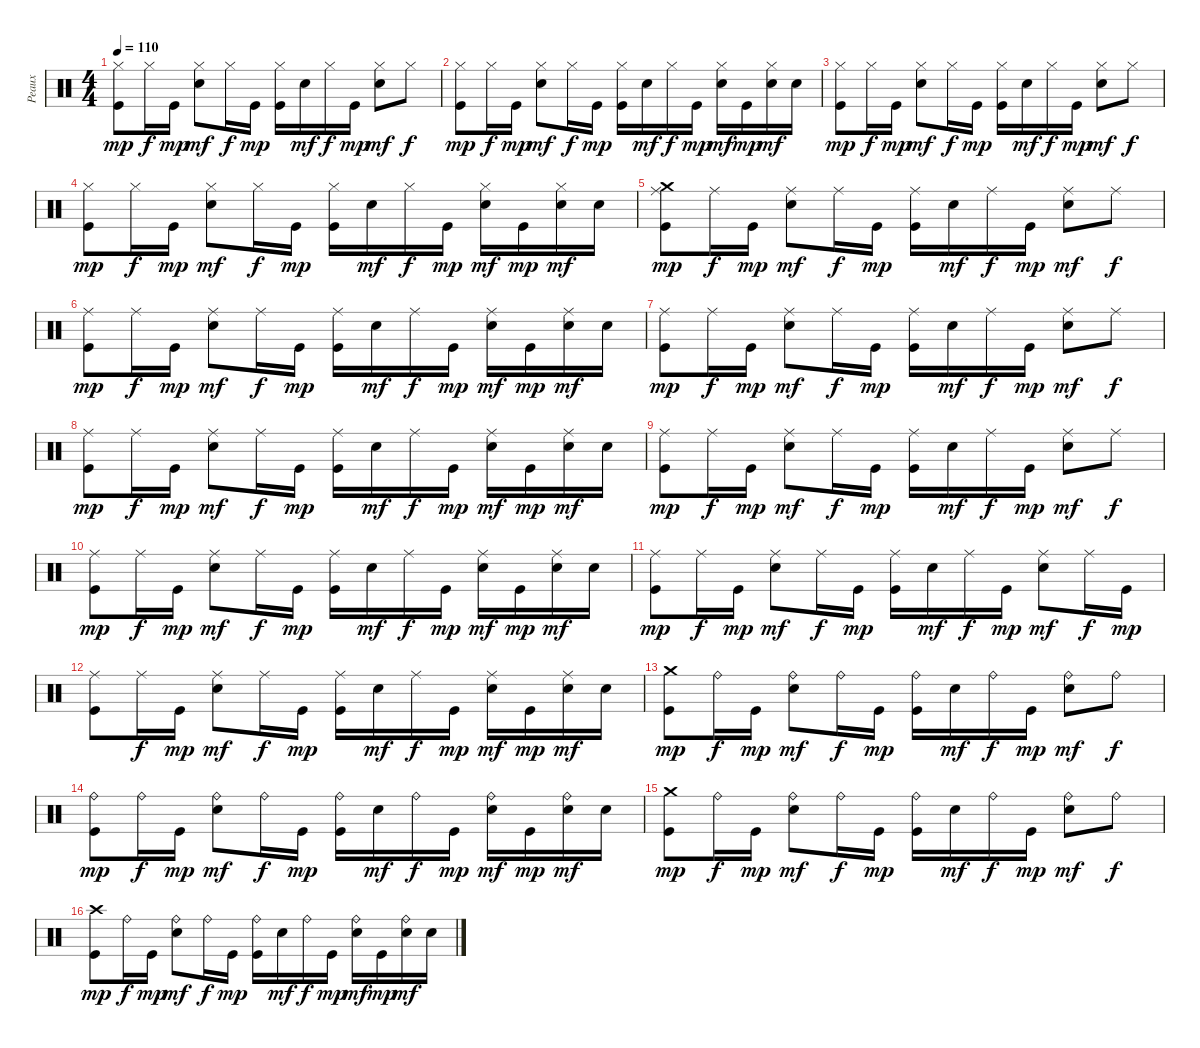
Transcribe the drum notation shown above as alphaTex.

\track ("Peaux" "Peaux") {instrument percussion}
\staff {score}
\articulation defaults
\ts (4 4)
\tempo 110
\clef neutral
\ks c
("Hi-Hat (closed)" "Kick (hit)").8{dy mp} "Hi-Hat (closed)".16{dy f} "Kick (hit)".16{dy mp} ("Hi-Hat (closed)" "Snare (hit) 2").8{dy mf} "Hi-Hat (closed)".16{dy f} "Kick (hit)".16{dy mp} ("Hi-Hat (closed)" "Kick (hit)").16 "Snare (hit) 2".16{dy mf} "Hi-Hat (closed)".16{dy f} "Kick (hit)".16{dy mp} ("Hi-Hat (closed)" "Snare (hit) 2").8{dy mf} "Hi-Hat (closed)".8{dy f} |
("Hi-Hat (closed)" "Kick (hit)").8{dy mp} "Hi-Hat (closed)".16{dy f} "Kick (hit)".16{dy mp} ("Hi-Hat (closed)" "Snare (hit) 2").8{dy mf} "Hi-Hat (closed)".16{dy f} "Kick (hit)".16{dy mp} ("Hi-Hat (closed)" "Kick (hit)").16 "Snare (hit) 2".16{dy mf} "Hi-Hat (closed)".16{dy f} "Kick (hit)".16{dy mp} ("Hi-Hat (closed)" "Snare (hit) 2").16{dy mf} "Kick (hit)".16{dy mp} ("Hi-Hat (closed)" "Snare (hit) 2").16{dy mf} "Snare (hit) 2".16 |
("Hi-Hat (closed)" "Kick (hit)").8{dy mp} "Hi-Hat (closed)".16{dy f} "Kick (hit)".16{dy mp} ("Hi-Hat (closed)" "Snare (hit) 2").8{dy mf} "Hi-Hat (closed)".16{dy f} "Kick (hit)".16{dy mp} ("Hi-Hat (closed)" "Kick (hit)").16 "Snare (hit) 2".16{dy mf} "Hi-Hat (closed)".16{dy f} "Kick (hit)".16{dy mp} ("Hi-Hat (closed)" "Snare (hit) 2").8{dy mf} "Hi-Hat (closed)".8{dy f} |
("Hi-Hat (closed)" "Kick (hit)").8{dy mp} "Hi-Hat (closed)".16{dy f} "Kick (hit)".16{dy mp} ("Hi-Hat (closed)" "Snare (hit) 2").8{dy mf} "Hi-Hat (closed)".16{dy f} "Kick (hit)".16{dy mp} ("Hi-Hat (closed)" "Kick (hit)").16 "Snare (hit) 2".16{dy mf} "Hi-Hat (closed)".16{dy f} "Kick (hit)".16{dy mp} ("Hi-Hat (closed)" "Snare (hit) 2").16{dy mf} "Kick (hit)".16{dy mp} ("Hi-Hat (closed)" "Snare (hit) 2").16{dy mf} "Snare (hit) 2".16 |
("Ride (middle)" "Crash medium (hit)" "Kick (hit)").8{dy mp} "Ride (middle)".16{dy f} "Kick (hit)".16{dy mp} ("Ride (middle)" "Snare (hit) 2").8{dy mf} "Ride (middle)".16{dy f} "Kick (hit)".16{dy mp} ("Ride (middle)" "Kick (hit)").16 "Snare (hit) 2".16{dy mf} "Ride (middle)".16{dy f} "Kick (hit)".16{dy mp} ("Ride (middle)" "Snare (hit) 2").8{dy mf} "Ride (middle)".8{dy f} |
("Ride (middle)" "Kick (hit)").8{dy mp} "Ride (middle)".16{dy f} "Kick (hit)".16{dy mp} ("Ride (middle)" "Snare (hit) 2").8{dy mf} "Ride (middle)".16{dy f} "Kick (hit)".16{dy mp} ("Ride (middle)" "Kick (hit)").16 "Snare (hit) 2".16{dy mf} "Ride (middle)".16{dy f} "Kick (hit)".16{dy mp} ("Ride (middle)" "Snare (hit) 2").16{dy mf} "Kick (hit)".16{dy mp} ("Ride (middle)" "Snare (hit) 2").16{dy mf} "Snare (hit) 2".16 |
("Ride (middle)" "Kick (hit)").8{dy mp} "Ride (middle)".16{dy f} "Kick (hit)".16{dy mp} ("Ride (middle)" "Snare (hit) 2").8{dy mf} "Ride (middle)".16{dy f} "Kick (hit)".16{dy mp} ("Ride (middle)" "Kick (hit)").16 "Snare (hit) 2".16{dy mf} "Ride (middle)".16{dy f} "Kick (hit)".16{dy mp} ("Ride (middle)" "Snare (hit) 2").8{dy mf} "Ride (middle)".8{dy f} |
("Ride (middle)" "Kick (hit)").8{dy mp} "Ride (middle)".16{dy f} "Kick (hit)".16{dy mp} ("Ride (middle)" "Snare (hit) 2").8{dy mf} "Ride (middle)".16{dy f} "Kick (hit)".16{dy mp} ("Ride (middle)" "Kick (hit)").16 "Snare (hit) 2".16{dy mf} "Ride (middle)".16{dy f} "Kick (hit)".16{dy mp} ("Ride (middle)" "Snare (hit) 2").16{dy mf} "Kick (hit)".16{dy mp} ("Ride (middle)" "Snare (hit) 2").16{dy mf} "Snare (hit) 2".16 |
("Ride (middle)" "Kick (hit)").8{dy mp} "Ride (middle)".16{dy f} "Kick (hit)".16{dy mp} ("Ride (middle)" "Snare (hit) 2").8{dy mf} "Ride (middle)".16{dy f} "Kick (hit)".16{dy mp} ("Ride (middle)" "Kick (hit)").16 "Snare (hit) 2".16{dy mf} "Ride (middle)".16{dy f} "Kick (hit)".16{dy mp} ("Ride (middle)" "Snare (hit) 2").8{dy mf} "Ride (middle)".8{dy f} |
("Ride (middle)" "Kick (hit)").8{dy mp} "Ride (middle)".16{dy f} "Kick (hit)".16{dy mp} ("Ride (middle)" "Snare (hit) 2").8{dy mf} "Ride (middle)".16{dy f} "Kick (hit)".16{dy mp} ("Ride (middle)" "Kick (hit)").16 "Snare (hit) 2".16{dy mf} "Ride (middle)".16{dy f} "Kick (hit)".16{dy mp} ("Ride (middle)" "Snare (hit) 2").16{dy mf} "Kick (hit)".16{dy mp} ("Ride (middle)" "Snare (hit) 2").16{dy mf} "Snare (hit) 2".16 |
("Ride (middle)" "Kick (hit)").8{dy mp} "Ride (middle)".16{dy f} "Kick (hit)".16{dy mp} ("Ride (middle)" "Snare (hit) 2").8{dy mf} "Ride (middle)".16{dy f} "Kick (hit)".16{dy mp} ("Ride (middle)" "Kick (hit)").16 "Snare (hit) 2".16{dy mf} "Ride (middle)".16{dy f} "Kick (hit)".16{dy mp} ("Ride (middle)" "Snare (hit) 2").8{dy mf} "Ride (middle)".16{dy f} "Kick (hit)".16{dy mp} |
("Ride (middle)" "Kick (hit)").8 "Ride (middle)".16{dy f} "Kick (hit)".16{dy mp} ("Ride (middle)" "Snare (hit) 2").8{dy mf} "Ride (middle)".16{dy f} "Kick (hit)".16{dy mp} ("Ride (middle)" "Kick (hit)").16 "Snare (hit) 2".16{dy mf} "Ride (middle)".16{dy f} "Kick (hit)".16{dy mp} ("Ride (middle)" "Snare (hit) 2").16{dy mf} "Kick (hit)".16{dy mp} ("Ride (middle)" "Snare (hit) 2").16{dy mf} "Snare (hit) 2".16 |
("Crash medium (hit)" "Kick (hit)").8{dy mp} "Ride (bell)".16{dy f} "Kick (hit)".16{dy mp} ("Ride (bell)" "Snare (hit) 2").8{dy mf} "Ride (bell)".16{dy f} "Kick (hit)".16{dy mp} ("Ride (bell)" "Kick (hit)").16 "Snare (hit) 2".16{dy mf} "Ride (bell)".16{dy f} "Kick (hit)".16{dy mp} ("Ride (bell)" "Snare (hit) 2").8{dy mf} "Ride (bell)".8{dy f} |
("Ride (bell)" "Kick (hit)").8{dy mp} "Ride (bell)".16{dy f} "Kick (hit)".16{dy mp} ("Ride (bell)" "Snare (hit) 2").8{dy mf} "Ride (bell)".16{dy f} "Kick (hit)".16{dy mp} ("Ride (bell)" "Kick (hit)").16 "Snare (hit) 2".16{dy mf} "Ride (bell)".16{dy f} "Kick (hit)".16{dy mp} ("Ride (bell)" "Snare (hit) 2").16{dy mf} "Kick (hit)".16{dy mp} ("Ride (bell)" "Snare (hit) 2").16{dy mf} "Snare (hit) 2".16 |
("Crash medium (hit)" "Kick (hit)").8{dy mp} "Ride (bell)".16{dy f} "Kick (hit)".16{dy mp} ("Ride (bell)" "Snare (hit) 2").8{dy mf} "Ride (bell)".16{dy f} "Kick (hit)".16{dy mp} ("Ride (bell)" "Kick (hit)").16 "Snare (hit) 2".16{dy mf} "Ride (bell)".16{dy f} "Kick (hit)".16{dy mp} ("Ride (bell)" "Snare (hit) 2").8{dy mf} "Ride (bell)".8{dy f} |
("Crash high (hit)" "Kick (hit)").8{dy mp} "Ride (bell)".16{dy f} "Kick (hit)".16{dy mp} ("Ride (bell)" "Snare (hit) 2").8{dy mf} "Ride (bell)".16{dy f} "Kick (hit)".16{dy mp} ("Ride (bell)" "Kick (hit)").16 "Snare (hit) 2".16{dy mf} "Ride (bell)".16{dy f} "Kick (hit)".16{dy mp} ("Ride (bell)" "Snare (hit) 2").16{dy mf} "Kick (hit)".16{dy mp} ("Ride (bell)" "Snare (hit) 2").16{dy mf} "Snare (hit) 2".16
